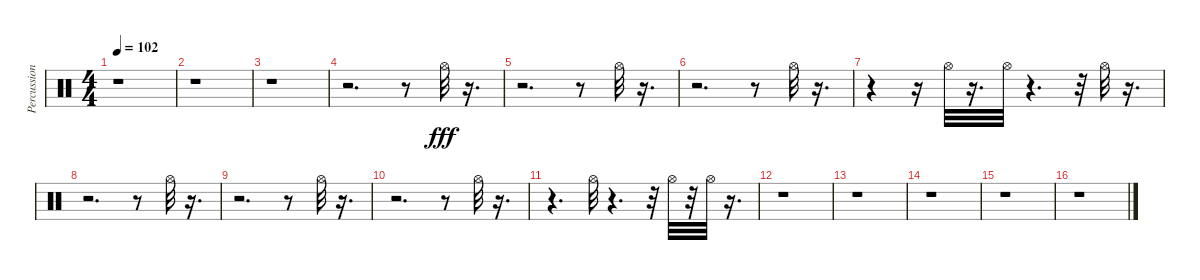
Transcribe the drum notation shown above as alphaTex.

\track ("Percussion" "Percussion") {instrument percussion}
\staff {score}
\articulation defaults
\ts (4 4)
\tempo 102
\clef neutral
\ks c
r.1{dy fff} |
r.1 |
r.1 |
r.2{d} r.8 "Hi-Hat (open)".32 r.16{d} |
r.2{d} r.8 "Hi-Hat (open)".32 r.16{d} |
r.2{d} r.8 "Hi-Hat (open)".32 r.16{d} |
r.4 r.16 "Hi-Hat (open)".32 r.16{d} "Hi-Hat (open)".32 r.4{d} r.32 "Hi-Hat (open)".32 r.16{d} |
r.2{d} r.8 "Hi-Hat (open)".32 r.16{d} |
r.2{d} r.8 "Hi-Hat (open)".32 r.16{d} |
r.2{d} r.8 "Hi-Hat (open)".32 r.16{d} |
r.4{d} "Hi-Hat (open)".32 r.4{d} r.32 "Hi-Hat (open)".32 r.32 "Hi-Hat (open)".32 r.16{d} |
r.1 |
r.1 |
r.1 |
r.1 |
r.1
